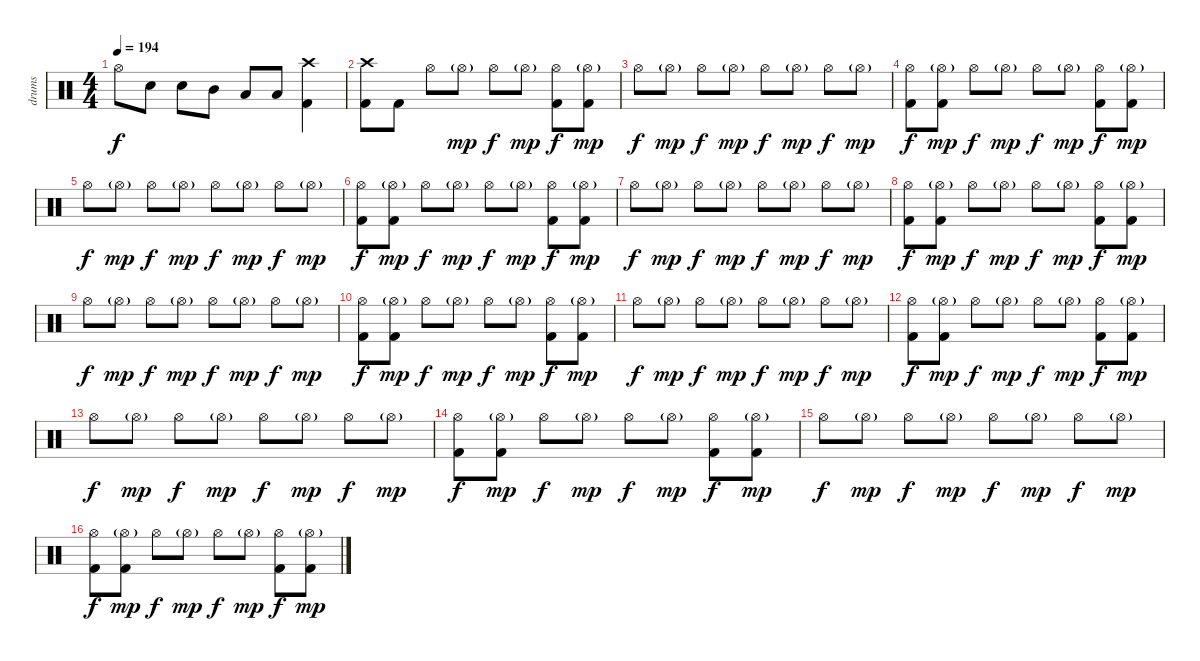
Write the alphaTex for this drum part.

\track ("drums" "drums") {instrument percussion}
\staff {score}
\articulation defaults
\ts (4 4)
\tempo 194
\clef neutral
\ks c "Hi-Hat (open)".8{dy f} "Electric Snare (hit)".8 "Electric Snare (hit)".8 "Mid Tom (hit)".8 "Low Tom (hit)".8 "Low Tom (hit)".8
("Crash high (hit)" "Kick (hit) 2").4 |
("Crash high (hit)" "Kick (hit) 2").8 "Kick (hit) 2".8 "Hi-Hat (open)".8 "Hi-Hat (open)"{g}.8{dy mp} "Hi-Hat (open)".8{dy f} "Hi-Hat (open)"{g}.8{dy mp} ("Hi-Hat (open)" "Kick (hit) 2").8{dy f} ("Hi-Hat (open)"{g} "Kick (hit) 2").8{dy mp} |
"Hi-Hat (open)".8{dy f} "Hi-Hat (open)"{g}.8{dy mp} "Hi-Hat (open)".8{dy f} "Hi-Hat (open)"{g}.8{dy mp} "Hi-Hat (open)".8{dy f} "Hi-Hat (open)"{g}.8{dy mp} "Hi-Hat (open)".8{dy f} "Hi-Hat (open)"{g}.8{dy mp} |
("Hi-Hat (open)" "Kick (hit) 2").8{dy f} ("Hi-Hat (open)"{g} "Kick (hit) 2").8{dy mp} "Hi-Hat (open)".8{dy f} "Hi-Hat (open)"{g}.8{dy mp} "Hi-Hat (open)".8{dy f} "Hi-Hat (open)"{g}.8{dy mp} ("Hi-Hat (open)" "Kick (hit) 2").8{dy f} ("Hi-Hat (open)"{g} "Kick (hit) 2").8{dy mp} |
"Hi-Hat (open)".8{dy f} "Hi-Hat (open)"{g}.8{dy mp} "Hi-Hat (open)".8{dy f} "Hi-Hat (open)"{g}.8{dy mp} "Hi-Hat (open)".8{dy f} "Hi-Hat (open)"{g}.8{dy mp} "Hi-Hat (open)".8{dy f} "Hi-Hat (open)"{g}.8{dy mp} |
("Hi-Hat (open)" "Kick (hit) 2").8{dy f} ("Hi-Hat (open)"{g} "Kick (hit) 2").8{dy mp} "Hi-Hat (open)".8{dy f} "Hi-Hat (open)"{g}.8{dy mp} "Hi-Hat (open)".8{dy f} "Hi-Hat (open)"{g}.8{dy mp} ("Hi-Hat (open)" "Kick (hit) 2").8{dy f} ("Hi-Hat (open)"{g} "Kick (hit) 2").8{dy mp} |
"Hi-Hat (open)".8{dy f} "Hi-Hat (open)"{g}.8{dy mp} "Hi-Hat (open)".8{dy f} "Hi-Hat (open)"{g}.8{dy mp} "Hi-Hat (open)".8{dy f} "Hi-Hat (open)"{g}.8{dy mp} "Hi-Hat (open)".8{dy f} "Hi-Hat (open)"{g}.8{dy mp} |
("Hi-Hat (open)" "Kick (hit) 2").8{dy f} ("Hi-Hat (open)"{g} "Kick (hit) 2").8{dy mp} "Hi-Hat (open)".8{dy f} "Hi-Hat (open)"{g}.8{dy mp} "Hi-Hat (open)".8{dy f} "Hi-Hat (open)"{g}.8{dy mp} ("Hi-Hat (open)" "Kick (hit) 2").8{dy f} ("Hi-Hat (open)"{g} "Kick (hit) 2").8{dy mp} |
"Hi-Hat (open)".8{dy f} "Hi-Hat (open)"{g}.8{dy mp} "Hi-Hat (open)".8{dy f} "Hi-Hat (open)"{g}.8{dy mp} "Hi-Hat (open)".8{dy f} "Hi-Hat (open)"{g}.8{dy mp} "Hi-Hat (open)".8{dy f} "Hi-Hat (open)"{g}.8{dy mp} |
("Hi-Hat (open)" "Kick (hit) 2").8{dy f} ("Hi-Hat (open)"{g} "Kick (hit) 2").8{dy mp} "Hi-Hat (open)".8{dy f} "Hi-Hat (open)"{g}.8{dy mp} "Hi-Hat (open)".8{dy f} "Hi-Hat (open)"{g}.8{dy mp} ("Hi-Hat (open)" "Kick (hit) 2").8{dy f} ("Hi-Hat (open)"{g} "Kick (hit) 2").8{dy mp} |
"Hi-Hat (open)".8{dy f} "Hi-Hat (open)"{g}.8{dy mp} "Hi-Hat (open)".8{dy f} "Hi-Hat (open)"{g}.8{dy mp} "Hi-Hat (open)".8{dy f} "Hi-Hat (open)"{g}.8{dy mp} "Hi-Hat (open)".8{dy f} "Hi-Hat (open)"{g}.8{dy mp} |
("Hi-Hat (open)" "Kick (hit) 2").8{dy f} ("Hi-Hat (open)"{g} "Kick (hit) 2").8{dy mp} "Hi-Hat (open)".8{dy f} "Hi-Hat (open)"{g}.8{dy mp} "Hi-Hat (open)".8{dy f} "Hi-Hat (open)"{g}.8{dy mp} ("Hi-Hat (open)" "Kick (hit) 2").8{dy f} ("Hi-Hat (open)"{g} "Kick (hit) 2").8{dy mp} |
"Hi-Hat (open)".8{dy f} "Hi-Hat (open)"{g}.8{dy mp} "Hi-Hat (open)".8{dy f} "Hi-Hat (open)"{g}.8{dy mp} "Hi-Hat (open)".8{dy f} "Hi-Hat (open)"{g}.8{dy mp} "Hi-Hat (open)".8{dy f} "Hi-Hat (open)"{g}.8{dy mp} |
("Hi-Hat (open)" "Kick (hit) 2").8{dy f} ("Hi-Hat (open)"{g} "Kick (hit) 2").8{dy mp} "Hi-Hat (open)".8{dy f} "Hi-Hat (open)"{g}.8{dy mp} "Hi-Hat (open)".8{dy f} "Hi-Hat (open)"{g}.8{dy mp} ("Hi-Hat (open)" "Kick (hit) 2").8{dy f} ("Hi-Hat (open)"{g} "Kick (hit) 2").8{dy mp} |
"Hi-Hat (open)".8{dy f} "Hi-Hat (open)"{g}.8{dy mp} "Hi-Hat (open)".8{dy f} "Hi-Hat (open)"{g}.8{dy mp} "Hi-Hat (open)".8{dy f} "Hi-Hat (open)"{g}.8{dy mp} "Hi-Hat (open)".8{dy f} "Hi-Hat (open)"{g}.8{dy mp} |
("Hi-Hat (open)" "Kick (hit) 2").8{dy f} ("Hi-Hat (open)"{g} "Kick (hit) 2").8{dy mp} "Hi-Hat (open)".8{dy f} "Hi-Hat (open)"{g}.8{dy mp} "Hi-Hat (open)".8{dy f} "Hi-Hat (open)"{g}.8{dy mp} ("Hi-Hat (open)" "Kick (hit) 2").8{dy f} ("Hi-Hat (open)"{g} "Kick (hit) 2").8{dy mp}
